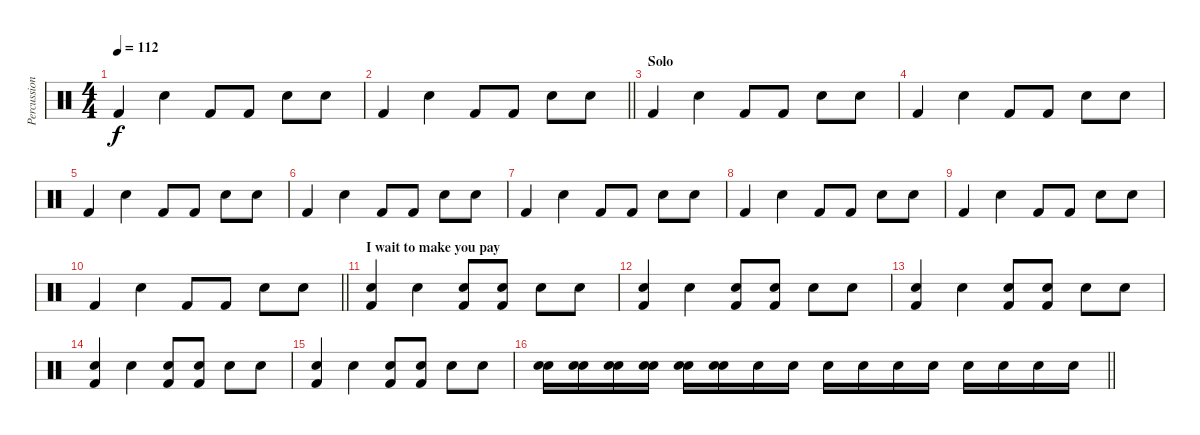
\track ("Percussions" "Percussion") {instrument percussion}
\staff {score}
\articulation defaults
\ts (4 4)
\tempo 112
\clef neutral
\ks c "Kick (hit) 2".4{dy f} "Electric Snare (hit)".4 "Kick (hit) 2".8 "Kick (hit) 2".8 "Electric Snare (hit)".8 "Electric Snare (hit)".8
|
\barLineRight lightlight "Kick (hit) 2".4 "Electric Snare (hit)".4 "Kick (hit) 2".8 "Kick (hit) 2".8 "Electric Snare (hit)".8 "Electric Snare (hit)".8
|
\section ("" "Solo")
"Kick (hit) 2".4 "Electric Snare (hit)".4 "Kick (hit) 2".8 "Kick (hit) 2".8 "Electric Snare (hit)".8 "Electric Snare (hit)".8 |
"Kick (hit) 2".4 "Electric Snare (hit)".4 "Kick (hit) 2".8 "Kick (hit) 2".8 "Electric Snare (hit)".8 "Electric Snare (hit)".8 |
"Kick (hit) 2".4 "Electric Snare (hit)".4 "Kick (hit) 2".8 "Kick (hit) 2".8 "Electric Snare (hit)".8 "Electric Snare (hit)".8 |
"Kick (hit) 2".4 "Electric Snare (hit)".4 "Kick (hit) 2".8 "Kick (hit) 2".8 "Electric Snare (hit)".8 "Electric Snare (hit)".8 |
"Kick (hit) 2".4 "Electric Snare (hit)".4 "Kick (hit) 2".8 "Kick (hit) 2".8 "Electric Snare (hit)".8 "Electric Snare (hit)".8 |
"Kick (hit) 2".4 "Electric Snare (hit)".4 "Kick (hit) 2".8 "Kick (hit) 2".8 "Electric Snare (hit)".8 "Electric Snare (hit)".8 |
"Kick (hit) 2".4 "Electric Snare (hit)".4 "Kick (hit) 2".8 "Kick (hit) 2".8 "Electric Snare (hit)".8 "Electric Snare (hit)".8 |
\barLineRight lightlight "Kick (hit) 2".4 "Electric Snare (hit)".4 "Kick (hit) 2".8 "Kick (hit) 2".8 "Electric Snare (hit)".8 "Electric Snare (hit)".8
|
\section ("" "I wait to make you pay")
("Snare (hit)" "Kick (hit) 2").4 "Electric Snare (hit)".4 ("Snare (hit)" "Kick (hit) 2").8 ("Snare (hit)" "Kick (hit) 2").8 "Electric Snare (hit)".8 "Electric Snare (hit)".8 |
("Snare (hit)" "Kick (hit) 2").4 "Electric Snare (hit)".4 ("Snare (hit)" "Kick (hit) 2").8 ("Snare (hit)" "Kick (hit) 2").8 "Electric Snare (hit)".8 "Electric Snare (hit)".8 |
("Snare (hit)" "Kick (hit) 2").4 "Electric Snare (hit)".4 ("Snare (hit)" "Kick (hit) 2").8 ("Snare (hit)" "Kick (hit) 2").8 "Electric Snare (hit)".8 "Electric Snare (hit)".8 |
("Snare (hit)" "Kick (hit) 2").4 "Electric Snare (hit)".4 ("Snare (hit)" "Kick (hit) 2").8 ("Snare (hit)" "Kick (hit) 2").8 "Electric Snare (hit)".8 "Electric Snare (hit)".8 |
("Snare (hit)" "Kick (hit) 2").4 "Electric Snare (hit)".4 ("Snare (hit)" "Kick (hit) 2").8 ("Snare (hit)" "Kick (hit) 2").8 "Electric Snare (hit)".8 "Electric Snare (hit)".8 |
\barLineRight lightlight
("Snare (hit)" "Electric Snare (hit)").16 ("Electric Snare (hit)" "Electric Snare (hit)").16 ("Snare (hit)" "Electric Snare (hit)").16 ("Snare (hit)" "Electric Snare (hit)").16 ("Electric Snare (hit)" "Electric Snare (hit)").16 ("Electric Snare (hit)" "Electric Snare (hit)").16 "Electric Snare (hit)".16 "Electric Snare (hit)".16 "Electric Snare (hit)".16 "Electric Snare (hit)".16 "Electric Snare (hit)".16 "Electric Snare (hit)".16 "Electric Snare (hit)".16 "Electric Snare (hit)".16 "Electric Snare (hit)".16 "Electric Snare (hit)".16
